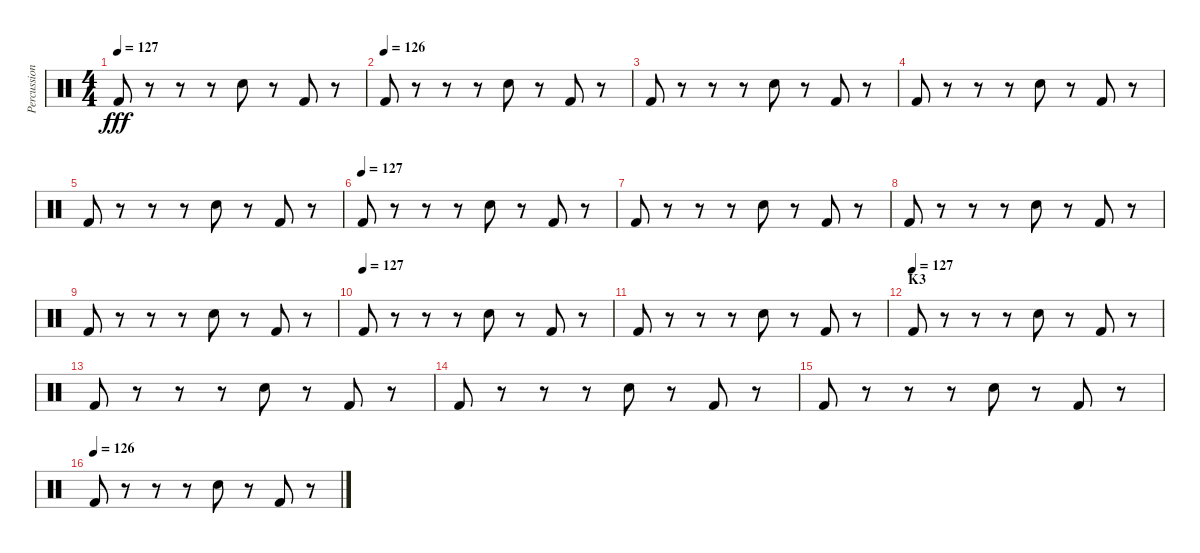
\track ("Percussion" "Percussion") {instrument percussion}
\staff {score}
\articulation defaults
\ts (4 4)
\tempo 127
\clef neutral
\ks c "Kick (hit) 2".8{dy fff}
r.8 r.8 r.8 "Electric Snare (hit)".8 r.8 "Kick (hit) 2".8 r.8 |
\tempo (126)
"Kick (hit) 2".8 r.8 r.8 r.8 "Electric Snare (hit)".8 r.8 "Kick (hit) 2".8 r.8 |
"Kick (hit) 2".8 r.8 r.8 r.8 "Electric Snare (hit)".8 r.8 "Kick (hit) 2".8 r.8 |
"Kick (hit) 2".8 r.8 r.8 r.8 "Electric Snare (hit)".8 r.8 "Kick (hit) 2".8 r.8 |
"Kick (hit) 2".8 r.8 r.8 r.8 "Electric Snare (hit)".8 r.8 "Kick (hit) 2".8 r.8 |
\tempo (127)
"Kick (hit) 2".8 r.8 r.8 r.8 "Electric Snare (hit)".8 r.8 "Kick (hit) 2".8 r.8 |
"Kick (hit) 2".8 r.8 r.8 r.8 "Electric Snare (hit)".8 r.8 "Kick (hit) 2".8 r.8 |
"Kick (hit) 2".8 r.8 r.8 r.8 "Electric Snare (hit)".8 r.8 "Kick (hit) 2".8 r.8 |
"Kick (hit) 2".8 r.8 r.8 r.8 "Electric Snare (hit)".8 r.8 "Kick (hit) 2".8 r.8 |
\tempo (127)
"Kick (hit) 2".8 r.8 r.8 r.8 "Electric Snare (hit)".8 r.8 "Kick (hit) 2".8 r.8 |
"Kick (hit) 2".8 r.8 r.8 r.8 "Electric Snare (hit)".8 r.8 "Kick (hit) 2".8 r.8 |
\section ("" "K3")
\tempo (127)
"Kick (hit) 2".8 r.8 r.8 r.8 "Electric Snare (hit)".8 r.8 "Kick (hit) 2".8 r.8 |
"Kick (hit) 2".8 r.8 r.8 r.8 "Electric Snare (hit)".8 r.8 "Kick (hit) 2".8 r.8 |
"Kick (hit) 2".8 r.8 r.8 r.8 "Electric Snare (hit)".8 r.8 "Kick (hit) 2".8 r.8 |
"Kick (hit) 2".8 r.8 r.8 r.8 "Electric Snare (hit)".8 r.8 "Kick (hit) 2".8 r.8 |
\tempo (126)
"Kick (hit) 2".8 r.8 r.8 r.8 "Electric Snare (hit)".8 r.8 "Kick (hit) 2".8 r.8
